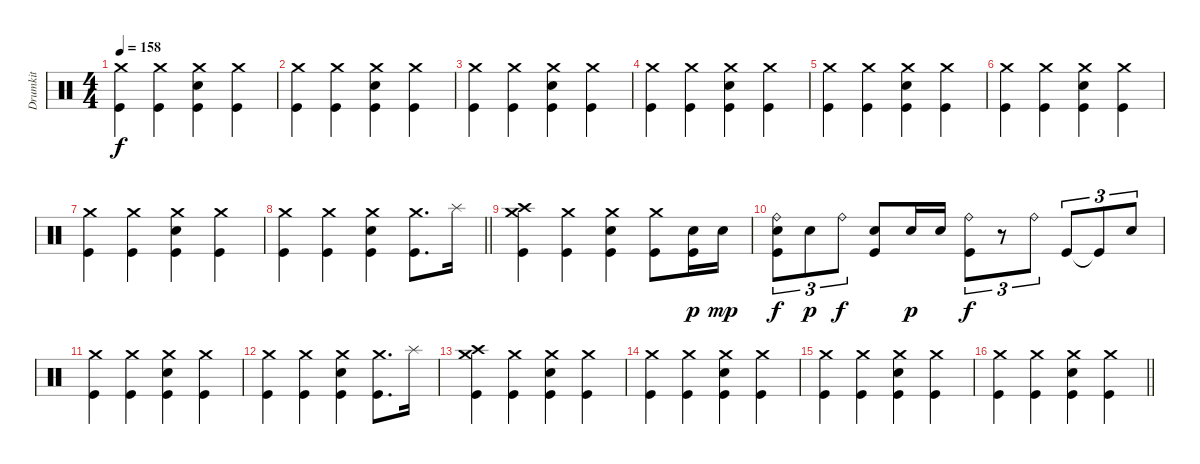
\track ("Drumkit" "Drumkit") {instrument percussion}
\staff {score}
\articulation defaults
\ts (4 4)
\section ("" "")
\tempo 158
\clef neutral
\ks c
("Crash medium (hit)" "Kick (hit)").4{dy f} ("Crash medium (hit)" "Kick (hit)").4 ("Crash medium (hit)" "Snare (hit) 2" "Kick (hit)").4 ("Crash medium (hit)" "Kick (hit)").4 |
("Crash medium (hit)" "Kick (hit)").4 ("Crash medium (hit)" "Kick (hit)").4 ("Crash medium (hit)" "Snare (hit) 2" "Kick (hit)").4 ("Crash medium (hit)" "Kick (hit)").4 |
("Crash medium (hit)" "Kick (hit)").4 ("Crash medium (hit)" "Kick (hit)").4 ("Crash medium (hit)" "Snare (hit) 2" "Kick (hit)").4 ("Crash medium (hit)" "Kick (hit)").4 |
("Crash medium (hit)" "Kick (hit)").4 ("Crash medium (hit)" "Kick (hit)").4 ("Crash medium (hit)" "Snare (hit) 2" "Kick (hit)").4 ("Crash medium (hit)" "Kick (hit)").4 |
("Crash medium (hit)" "Kick (hit)").4 ("Crash medium (hit)" "Kick (hit)").4 ("Crash medium (hit)" "Snare (hit) 2" "Kick (hit)").4 ("Crash medium (hit)" "Kick (hit)").4 |
("Crash medium (hit)" "Kick (hit)").4 ("Crash medium (hit)" "Kick (hit)").4 ("Crash medium (hit)" "Snare (hit) 2" "Kick (hit)").4 ("Crash medium (hit)" "Kick (hit)").4 |
("Crash medium (hit)" "Kick (hit)").4 ("Crash medium (hit)" "Kick (hit)").4 ("Crash medium (hit)" "Snare (hit) 2" "Kick (hit)").4 ("Crash medium (hit)" "Kick (hit)").4 |
\barLineRight lightlight
("Crash medium (hit)" "Kick (hit)").4 ("Crash medium (hit)" "Kick (hit)").4 ("Crash medium (hit)" "Snare (hit) 2" "Kick (hit)").4 ("Crash medium (hit)" "Kick (hit)").8{d} "Splash (hit)".16 |
\section ("" "")
("Crash medium (hit)" "Crash high (hit)" "Kick (hit)").4 ("Crash medium (hit)" "Kick (hit)").4 ("Crash medium (hit)" "Snare (hit) 2" "Kick (hit)").4 ("Crash medium (hit)" "Kick (hit)").8 ("Snare (hit) 2" "Kick (hit)").16{dy p} "Snare (hit) 2".16{dy mp} |
("Ride (bell)" "Snare (hit) 2" "Kick (hit)").8{tu (3 2) dy f} "Snare (hit) 2".8{tu (3 2) dy p} "Ride (bell)".8{tu (3 2) dy f} ("Snare (hit) 2" "Kick (hit)").8 "Snare (hit) 2".16{dy p} "Snare (hit) 2".16 ("Ride (bell)" "Kick (hit)").8{tu (3 2) dy f} r.8{tu (3 2)} "Ride (bell)".8{tu (3 2)} "Kick (hit)".8{tu (3 2)} "Kick (hit)"{t}.8{tu (3 2)} "Snare (hit) 2".8{tu (3 2)} |
("Crash medium (hit)" "Kick (hit)").4 ("Crash medium (hit)" "Kick (hit)").4 ("Crash medium (hit)" "Snare (hit) 2" "Kick (hit)").4 ("Crash medium (hit)" "Kick (hit)").4 |
("Crash medium (hit)" "Kick (hit)").4 ("Crash medium (hit)" "Kick (hit)").4 ("Crash medium (hit)" "Snare (hit) 2" "Kick (hit)").4 ("Crash medium (hit)" "Kick (hit)").8{d} "Splash (hit)".16 |
("Crash medium (hit)" "Crash high (hit)" "Kick (hit)").4 ("Crash medium (hit)" "Kick (hit)").4 ("Crash medium (hit)" "Snare (hit) 2" "Kick (hit)").4 ("Crash medium (hit)" "Kick (hit)").4 |
("Crash medium (hit)" "Kick (hit)").4 ("Crash medium (hit)" "Kick (hit)").4 ("Crash medium (hit)" "Snare (hit) 2" "Kick (hit)").4 ("Crash medium (hit)" "Kick (hit)").4 |
("Crash medium (hit)" "Kick (hit)").4 ("Crash medium (hit)" "Kick (hit)").4 ("Crash medium (hit)" "Snare (hit) 2" "Kick (hit)").4 ("Crash medium (hit)" "Kick (hit)").4 |
\barLineRight lightlight
("Crash medium (hit)" "Kick (hit)").4 ("Crash medium (hit)" "Kick (hit)").4 ("Crash medium (hit)" "Snare (hit) 2" "Kick (hit)").4 ("Crash medium (hit)" "Kick (hit)").4
